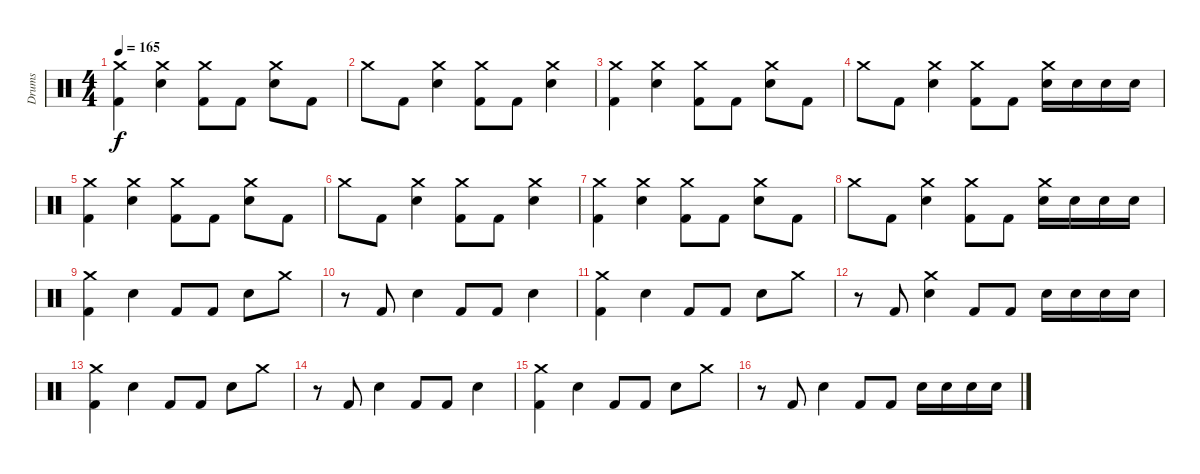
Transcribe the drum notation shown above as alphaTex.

\track ("Drums" "Drums") {instrument percussion}
\staff {score}
\articulation defaults
\ts (4 4)
\tempo 165
\clef neutral
\ks c
("Crash medium (hit)" "Kick (hit) 2").4{dy f} ("Crash medium (hit)" "Snare (hit) 2").4 ("Crash medium (hit)" "Kick (hit) 2").8 "Kick (hit) 2".8 ("Crash medium (hit)" "Snare (hit) 2").8 "Kick (hit) 2".8 |
"Crash medium (hit)".8 "Kick (hit) 2".8 ("Crash medium (hit)" "Snare (hit) 2").4 ("Crash medium (hit)" "Kick (hit) 2").8 "Kick (hit) 2".8 ("Crash medium (hit)" "Snare (hit) 2").4 |
("Crash medium (hit)" "Kick (hit) 2").4 ("Crash medium (hit)" "Snare (hit) 2").4 ("Crash medium (hit)" "Kick (hit) 2").8 "Kick (hit) 2".8 ("Crash medium (hit)" "Snare (hit) 2").8 "Kick (hit) 2".8 |
"Crash medium (hit)".8 "Kick (hit) 2".8 ("Crash medium (hit)" "Snare (hit) 2").4 ("Crash medium (hit)" "Kick (hit) 2").8 "Kick (hit) 2".8 ("Crash medium (hit)" "Snare (hit) 2").16 "Snare (hit) 2".16 "Snare (hit) 2".16 "Snare (hit) 2".16 |
("Crash medium (hit)" "Kick (hit) 2").4 ("Crash medium (hit)" "Snare (hit) 2").4 ("Crash medium (hit)" "Kick (hit) 2").8 "Kick (hit) 2".8 ("Crash medium (hit)" "Snare (hit) 2").8 "Kick (hit) 2".8 |
"Crash medium (hit)".8 "Kick (hit) 2".8 ("Crash medium (hit)" "Snare (hit) 2").4 ("Crash medium (hit)" "Kick (hit) 2").8 "Kick (hit) 2".8 ("Crash medium (hit)" "Snare (hit) 2").4 |
("Crash medium (hit)" "Kick (hit) 2").4 ("Crash medium (hit)" "Snare (hit) 2").4 ("Crash medium (hit)" "Kick (hit) 2").8 "Kick (hit) 2".8 ("Crash medium (hit)" "Snare (hit) 2").8 "Kick (hit) 2".8 |
"Crash medium (hit)".8 "Kick (hit) 2".8 ("Crash medium (hit)" "Snare (hit) 2").4 ("Crash medium (hit)" "Kick (hit) 2").8 "Kick (hit) 2".8 ("Crash medium (hit)" "Snare (hit) 2").16 "Snare (hit) 2".16 "Snare (hit) 2".16 "Snare (hit) 2".16 |
("Crash medium (hit)" "Kick (hit) 2").4 "Snare (hit) 2".4 "Kick (hit) 2".8 "Kick (hit) 2".8 "Snare (hit) 2".8 "Crash medium (hit)".8 |
r.8 "Kick (hit) 2".8 "Snare (hit) 2".4 "Kick (hit) 2".8 "Kick (hit) 2".8 "Snare (hit) 2".4 |
("Crash medium (hit)" "Kick (hit) 2").4 "Snare (hit) 2".4 "Kick (hit) 2".8 "Kick (hit) 2".8 "Snare (hit) 2".8 "Crash medium (hit)".8 |
r.8 "Kick (hit) 2".8 ("Crash medium (hit)" "Snare (hit) 2").4 "Kick (hit) 2".8 "Kick (hit) 2".8 "Snare (hit) 2".16 "Snare (hit) 2".16 "Snare (hit) 2".16 "Snare (hit) 2".16 |
("Crash medium (hit)" "Kick (hit) 2").4 "Snare (hit) 2".4 "Kick (hit) 2".8 "Kick (hit) 2".8 "Snare (hit) 2".8 "Crash medium (hit)".8 |
r.8 "Kick (hit) 2".8 "Snare (hit) 2".4 "Kick (hit) 2".8 "Kick (hit) 2".8 "Snare (hit) 2".4 |
("Crash medium (hit)" "Kick (hit) 2").4 "Snare (hit) 2".4 "Kick (hit) 2".8 "Kick (hit) 2".8 "Snare (hit) 2".8 "Crash medium (hit)".8 |
r.8 "Kick (hit) 2".8 "Snare (hit) 2".4 "Kick (hit) 2".8 "Kick (hit) 2".8 "Snare (hit) 2".16 "Snare (hit) 2".16 "Snare (hit) 2".16 "Snare (hit) 2".16
